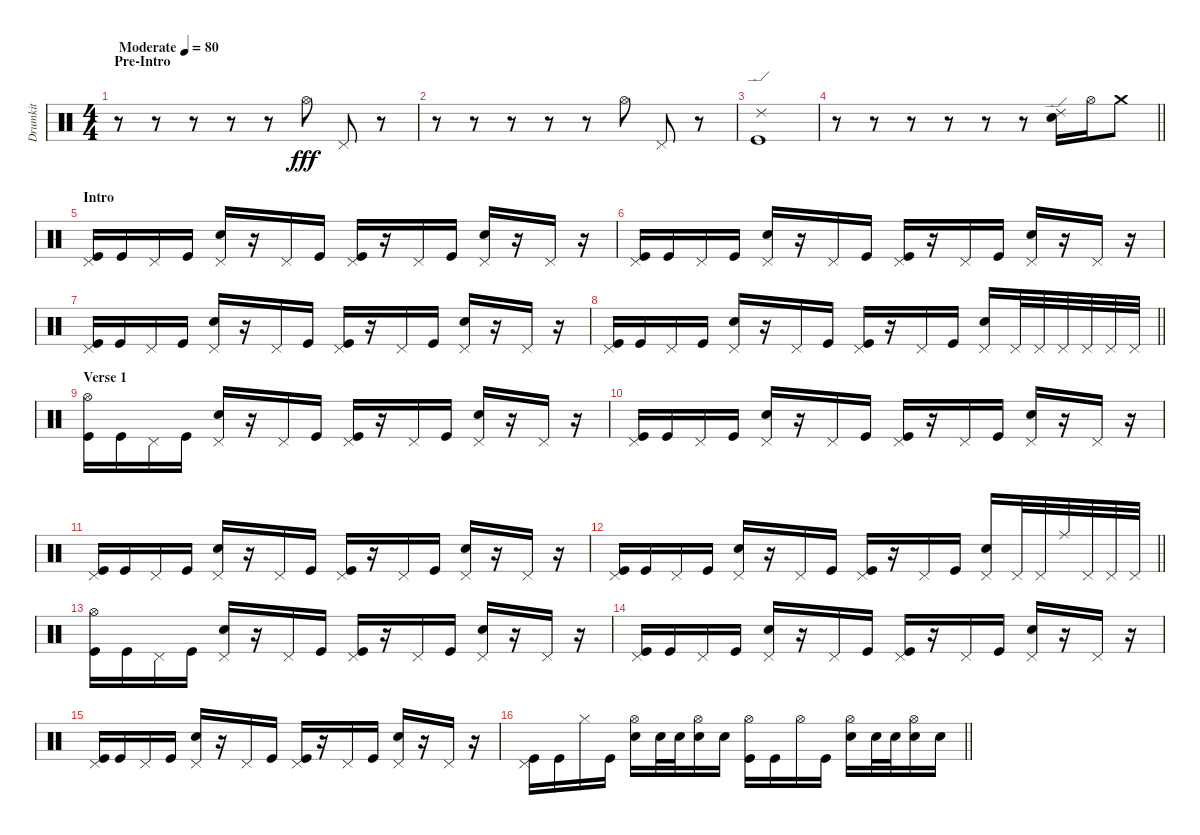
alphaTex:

\track ("Drumkit" "Drumkit") {instrument percussion}
\staff {score}
\articulation defaults
\ts (4 4)
\section ("" "Pre-Intro")
\tempo (80 "Moderate")
\clef neutral
\ks c
r.8{dy fff} r.8 r.8 r.8 r.8 "Hi-Hat (open)".8 "Pedal Hi-Hat (hit)".8 r.8 |
r.8 r.8 r.8 r.8 r.8 "Hi-Hat (open)".8 "Pedal Hi-Hat (hit)".8 r.8 |
("Ride (edge) 2" "Kick (hit)").1 |
\barLineRight lightlight
r.8 r.8 r.8 r.8 r.8 r.8 ("Ride (edge) 2" "Snare (hit) 2").16 "Hi-Hat (open)".16 "Crash medium (hit)".8 |
\section ("" "Intro")
("Pedal Hi-Hat (hit)" "Kick (hit)").16 "Kick (hit)".16 "Pedal Hi-Hat (hit)".16 "Kick (hit)".16 ("Pedal Hi-Hat (hit)" "Snare (hit) 2").16 r.16 "Pedal Hi-Hat (hit)".16 "Kick (hit)".16 ("Pedal Hi-Hat (hit)" "Kick (hit)").16 r.16 "Pedal Hi-Hat (hit)".16 "Kick (hit)".16 ("Pedal Hi-Hat (hit)" "Snare (hit) 2").16 r.16 "Pedal Hi-Hat (hit)".16 r.16 |
("Pedal Hi-Hat (hit)" "Kick (hit)").16 "Kick (hit)".16 "Pedal Hi-Hat (hit)".16 "Kick (hit)".16 ("Pedal Hi-Hat (hit)" "Snare (hit) 2").16 r.16 "Pedal Hi-Hat (hit)".16 "Kick (hit)".16 ("Pedal Hi-Hat (hit)" "Kick (hit)").16 r.16 "Pedal Hi-Hat (hit)".16 "Kick (hit)".16 ("Pedal Hi-Hat (hit)" "Snare (hit) 2").16 r.16 "Pedal Hi-Hat (hit)".16 r.16 |
("Pedal Hi-Hat (hit)" "Kick (hit)").16 "Kick (hit)".16 "Pedal Hi-Hat (hit)".16 "Kick (hit)".16 ("Pedal Hi-Hat (hit)" "Snare (hit) 2").16 r.16 "Pedal Hi-Hat (hit)".16 "Kick (hit)".16 ("Pedal Hi-Hat (hit)" "Kick (hit)").16 r.16 "Pedal Hi-Hat (hit)".16 "Kick (hit)".16 ("Pedal Hi-Hat (hit)" "Snare (hit) 2").16 r.16 "Pedal Hi-Hat (hit)".16 r.16 |
\barLineRight lightlight
("Pedal Hi-Hat (hit)" "Kick (hit)").16 "Kick (hit)".16 "Pedal Hi-Hat (hit)".16 "Kick (hit)".16 ("Pedal Hi-Hat (hit)" "Snare (hit) 2").16 r.16 "Pedal Hi-Hat (hit)".16 "Kick (hit)".16 ("Pedal Hi-Hat (hit)" "Kick (hit)").16 r.16 "Pedal Hi-Hat (hit)".16 "Kick (hit)".16 ("Pedal Hi-Hat (hit)" "Snare (hit) 2").16 "Pedal Hi-Hat (hit)".32 "Pedal Hi-Hat (hit)".32 "Pedal Hi-Hat (hit)".32 "Pedal Hi-Hat (hit)".32 "Pedal Hi-Hat (hit)".32 "Pedal Hi-Hat (hit)".32 |
\section ("" "Verse 1")
("Hi-Hat (open)" "Kick (hit)").16 "Kick (hit)".16 "Pedal Hi-Hat (hit)".16 "Kick (hit)".16 ("Pedal Hi-Hat (hit)" "Snare (hit) 2").16 r.16 "Pedal Hi-Hat (hit)".16 "Kick (hit)".16 ("Pedal Hi-Hat (hit)" "Kick (hit)").16 r.16 "Pedal Hi-Hat (hit)".16 "Kick (hit)".16 ("Pedal Hi-Hat (hit)" "Snare (hit) 2").16 r.16 "Pedal Hi-Hat (hit)".16 r.16 |
("Pedal Hi-Hat (hit)" "Kick (hit)").16 "Kick (hit)".16 "Pedal Hi-Hat (hit)".16 "Kick (hit)".16 ("Pedal Hi-Hat (hit)" "Snare (hit) 2").16 r.16 "Pedal Hi-Hat (hit)".16 "Kick (hit)".16 ("Pedal Hi-Hat (hit)" "Kick (hit)").16 r.16 "Pedal Hi-Hat (hit)".16 "Kick (hit)".16 ("Pedal Hi-Hat (hit)" "Snare (hit) 2").16 r.16 "Pedal Hi-Hat (hit)".16 r.16 |
("Pedal Hi-Hat (hit)" "Kick (hit)").16 "Kick (hit)".16 "Pedal Hi-Hat (hit)".16 "Kick (hit)".16 ("Pedal Hi-Hat (hit)" "Snare (hit) 2").16 r.16 "Pedal Hi-Hat (hit)".16 "Kick (hit)".16 ("Pedal Hi-Hat (hit)" "Kick (hit)").16 r.16 "Pedal Hi-Hat (hit)".16 "Kick (hit)".16 ("Pedal Hi-Hat (hit)" "Snare (hit) 2").16 r.16 "Pedal Hi-Hat (hit)".16 r.16 |
\barLineRight lightlight
("Pedal Hi-Hat (hit)" "Kick (hit)").16 "Kick (hit)".16 "Pedal Hi-Hat (hit)".16 "Kick (hit)".16 ("Pedal Hi-Hat (hit)" "Snare (hit) 2").16 r.16 "Pedal Hi-Hat (hit)".16 "Kick (hit)".16 ("Pedal Hi-Hat (hit)" "Kick (hit)").16 r.16 "Pedal Hi-Hat (hit)".16 "Kick (hit)".16 ("Pedal Hi-Hat (hit)" "Snare (hit) 2").16 "Pedal Hi-Hat (hit)".32 "Pedal Hi-Hat (hit)".32 "Ride (middle)".32 "Pedal Hi-Hat (hit)".32 "Pedal Hi-Hat (hit)".32 "Pedal Hi-Hat (hit)".32 |
("Hi-Hat (open)" "Kick (hit)").16 "Kick (hit)".16 "Pedal Hi-Hat (hit)".16 "Kick (hit)".16 ("Pedal Hi-Hat (hit)" "Snare (hit) 2").16 r.16 "Pedal Hi-Hat (hit)".16 "Kick (hit)".16 ("Pedal Hi-Hat (hit)" "Kick (hit)").16 r.16 "Pedal Hi-Hat (hit)".16 "Kick (hit)".16 ("Pedal Hi-Hat (hit)" "Snare (hit) 2").16 r.16 "Pedal Hi-Hat (hit)".16 r.16 |
("Pedal Hi-Hat (hit)" "Kick (hit)").16 "Kick (hit)".16 "Pedal Hi-Hat (hit)".16 "Kick (hit)".16 ("Pedal Hi-Hat (hit)" "Snare (hit) 2").16 r.16 "Pedal Hi-Hat (hit)".16 "Kick (hit)".16 ("Pedal Hi-Hat (hit)" "Kick (hit)").16 r.16 "Pedal Hi-Hat (hit)".16 "Kick (hit)".16 ("Pedal Hi-Hat (hit)" "Snare (hit) 2").16 r.16 "Pedal Hi-Hat (hit)".16 r.16 |
("Pedal Hi-Hat (hit)" "Kick (hit)").16 "Kick (hit)".16 "Pedal Hi-Hat (hit)".16 "Kick (hit)".16 ("Pedal Hi-Hat (hit)" "Snare (hit) 2").16 r.16 "Pedal Hi-Hat (hit)".16 "Kick (hit)".16 ("Pedal Hi-Hat (hit)" "Kick (hit)").16 r.16 "Pedal Hi-Hat (hit)".16 "Kick (hit)".16 ("Pedal Hi-Hat (hit)" "Snare (hit) 2").16 r.16 "Pedal Hi-Hat (hit)".16 r.16 |
\barLineRight lightlight
("Pedal Hi-Hat (hit)" "Kick (hit)").16 "Kick (hit)".16 "Hi-Hat (closed)".16 "Kick (hit)".16 ("Hi-Hat (open)" "Snare (hit) 2").16 "Snare (hit) 2".32 "Snare (hit) 2".32 ("Hi-Hat (open)" "Snare (hit) 2").16 "Snare (hit) 2".16 ("Hi-Hat (open)" "Kick (hit)").16 "Kick (hit)".16 "Hi-Hat (open)".16 "Kick (hit)".16 ("Hi-Hat (open)" "Snare (hit) 2").16 "Snare (hit) 2".32 "Snare (hit) 2".32 ("Hi-Hat (open)" "Snare (hit) 2").16 "Snare (hit) 2".16
